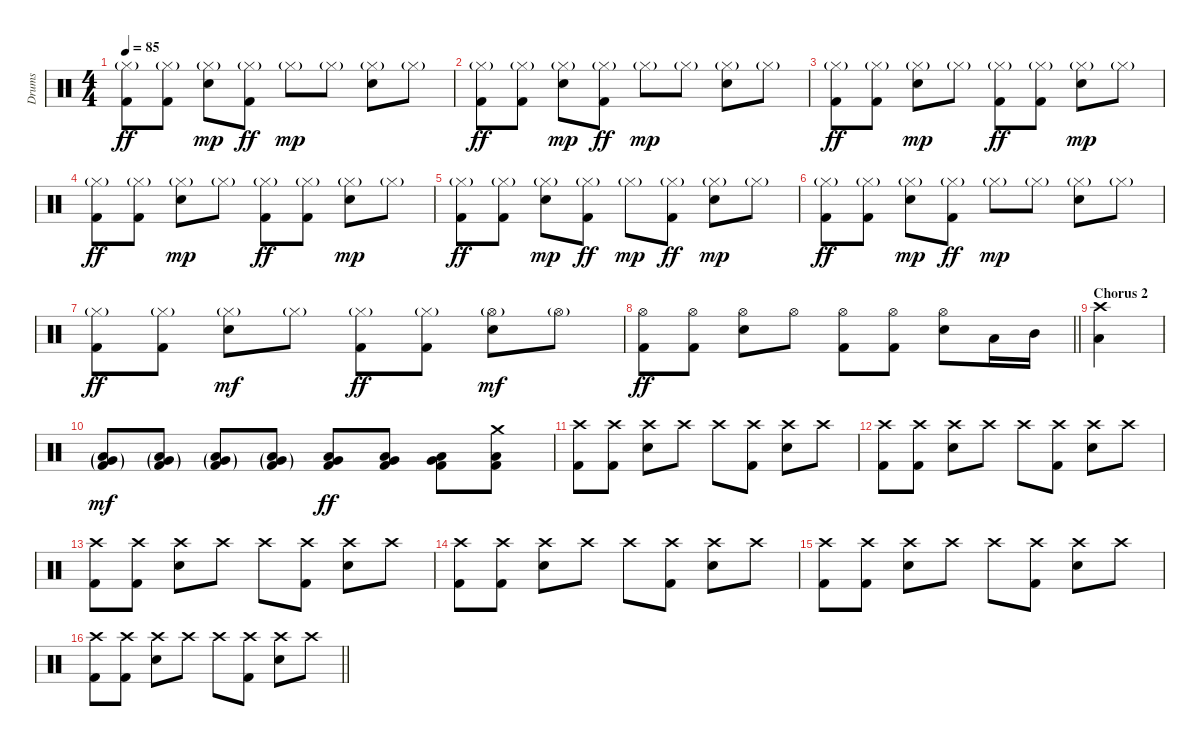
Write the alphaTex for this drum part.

\track ("Drums" "Drums") {instrument percussion}
\staff {score}
\articulation defaults
\ts (4 4)
\tempo 85
\clef neutral
\ks c
("Hi-Hat (closed)"{g} "Kick (hit) 2").8{dy ff} ("Hi-Hat (closed)"{g} "Kick (hit) 2").8 ("Hi-Hat (closed)"{g} "Electric Snare (hit)").8{dy mp} ("Hi-Hat (closed)"{g} "Kick (hit) 2").8{dy ff} "Hi-Hat (closed)"{g}.8{dy mp} "Hi-Hat (closed)"{g}.8 ("Hi-Hat (closed)"{g} "Electric Snare (hit)").8 "Hi-Hat (closed)"{g}.8 |
("Hi-Hat (closed)"{g} "Kick (hit) 2").8{dy ff} ("Hi-Hat (closed)"{g} "Kick (hit) 2").8 ("Hi-Hat (closed)"{g} "Electric Snare (hit)").8{dy mp} ("Hi-Hat (closed)"{g} "Kick (hit) 2").8{dy ff} "Hi-Hat (closed)"{g}.8{dy mp} "Hi-Hat (closed)"{g}.8 ("Hi-Hat (closed)"{g} "Electric Snare (hit)").8 "Hi-Hat (closed)"{g}.8 |
("Hi-Hat (closed)"{g} "Kick (hit) 2").8{dy ff} ("Hi-Hat (closed)"{g} "Kick (hit) 2").8 ("Hi-Hat (closed)"{g} "Electric Snare (hit)").8{dy mp} "Hi-Hat (closed)"{g}.8 ("Hi-Hat (closed)"{g} "Kick (hit) 2").8{dy ff} ("Hi-Hat (closed)"{g} "Kick (hit) 2").8 ("Hi-Hat (closed)"{g} "Electric Snare (hit)").8{dy mp} "Hi-Hat (closed)"{g}.8 |
("Hi-Hat (closed)"{g} "Kick (hit) 2").8{dy ff} ("Hi-Hat (closed)"{g} "Kick (hit) 2").8 ("Hi-Hat (closed)"{g} "Electric Snare (hit)").8{dy mp} "Hi-Hat (closed)"{g}.8 ("Hi-Hat (closed)"{g} "Kick (hit) 2").8{dy ff} ("Hi-Hat (closed)"{g} "Kick (hit) 2").8 ("Hi-Hat (closed)"{g} "Electric Snare (hit)").8{dy mp} "Hi-Hat (closed)"{g}.8 |
("Hi-Hat (closed)"{g} "Kick (hit) 2").8{dy ff} ("Hi-Hat (closed)"{g} "Kick (hit) 2").8 ("Hi-Hat (closed)"{g} "Electric Snare (hit)").8{dy mp} ("Hi-Hat (closed)"{g} "Kick (hit) 2").8{dy ff} "Hi-Hat (closed)"{g}.8{dy mp} ("Hi-Hat (closed)"{g} "Kick (hit) 2").8{dy ff} ("Hi-Hat (closed)"{g} "Electric Snare (hit)").8{dy mp} "Hi-Hat (closed)"{g}.8 |
("Hi-Hat (closed)"{g} "Kick (hit) 2").8{dy ff} ("Hi-Hat (closed)"{g} "Kick (hit) 2").8 ("Hi-Hat (closed)"{g} "Electric Snare (hit)").8{dy mp} ("Hi-Hat (closed)"{g} "Kick (hit) 2").8{dy ff} "Hi-Hat (closed)"{g}.8{dy mp} "Hi-Hat (closed)"{g}.8 ("Hi-Hat (closed)"{g} "Electric Snare (hit)").8 "Hi-Hat (closed)"{g}.8 |
("Hi-Hat (closed)"{g} "Kick (hit) 2").8{dy ff} ("Hi-Hat (closed)"{g} "Kick (hit) 2").8 ("Hi-Hat (closed)"{g} "Electric Snare (hit)").8{dy mf} "Hi-Hat (closed)"{g}.8 ("Hi-Hat (closed)"{g} "Kick (hit) 2").8{dy ff} ("Hi-Hat (closed)"{g} "Kick (hit) 2").8 ("Hi-Hat (open)"{g} "Electric Snare (hit)").8{dy mf} "Hi-Hat (open)"{g}.8 |
\barLineRight lightlight
("Hi-Hat (open)" "Kick (hit) 2").8{dy ff} ("Hi-Hat (open)" "Kick (hit) 2").8 ("Hi-Hat (open)" "Electric Snare (hit)").8 "Hi-Hat (open)".8 ("Hi-Hat (open)" "Kick (hit) 2").8 ("Hi-Hat (open)" "Kick (hit) 2").8 ("Hi-Hat (open)" "Electric Snare (hit)").8 "Low Tom (hit)".16 "Mid Tom (hit)".16 |
\section ("" "Chorus 2")
("Crash high (hit)" "Low Tom (hit)").4 |
("Very Low Tom (hit)"{g} "Low Tom (hit)"{g} "Kick (hit) 2"{g}).8{dy mf} ("Very Low Tom (hit)"{g} "Low Tom (hit)"{g} "Kick (hit) 2"{g}).8 ("Very Low Tom (hit)"{g} "Low Tom (hit)"{g} "Kick (hit) 2"{g}).8 ("Very Low Tom (hit)"{g} "Low Tom (hit)"{g} "Kick (hit) 2"{g}).8 ("Very Low Tom (hit)" "Low Tom (hit)" "Kick (hit) 2").8{dy ff} ("Very Low Tom (hit)" "Low Tom (hit)" "Kick (hit) 2").8 ("Very Low Tom (hit)" "Low Tom (hit)" "Kick (hit) 2").8 ("Crash medium (hit)" "Low Tom (hit)" "Kick (hit) 2").8 |
("Crash high (hit)" "Kick (hit) 2").8 ("Crash high (hit)" "Kick (hit) 2").8 ("Crash high (hit)" "Electric Snare (hit)").8 "Crash high (hit)".8 "Crash high (hit)".8 ("Crash high (hit)" "Kick (hit) 2").8 ("Crash high (hit)" "Electric Snare (hit)").8 "Crash high (hit)".8 |
("Crash high (hit)" "Kick (hit) 2").8 ("Crash high (hit)" "Kick (hit) 2").8 ("Crash high (hit)" "Electric Snare (hit)").8 "Crash high (hit)".8 "Crash high (hit)".8 ("Crash high (hit)" "Kick (hit) 2").8 ("Crash high (hit)" "Electric Snare (hit)").8 "Crash high (hit)".8 |
("Crash high (hit)" "Kick (hit) 2").8 ("Crash high (hit)" "Kick (hit) 2").8 ("Crash high (hit)" "Electric Snare (hit)").8 "Crash high (hit)".8 "Crash high (hit)".8 ("Crash high (hit)" "Kick (hit) 2").8 ("Crash high (hit)" "Electric Snare (hit)").8 "Crash high (hit)".8 |
("Crash high (hit)" "Kick (hit) 2").8 ("Crash high (hit)" "Kick (hit) 2").8 ("Crash high (hit)" "Electric Snare (hit)").8 "Crash high (hit)".8 "Crash high (hit)".8 ("Crash high (hit)" "Kick (hit) 2").8 ("Crash high (hit)" "Electric Snare (hit)").8 "Crash high (hit)".8 |
("Crash high (hit)" "Kick (hit) 2").8 ("Crash high (hit)" "Kick (hit) 2").8 ("Crash high (hit)" "Electric Snare (hit)").8 "Crash high (hit)".8 "Crash high (hit)".8 ("Crash high (hit)" "Kick (hit) 2").8 ("Crash high (hit)" "Electric Snare (hit)").8 "Crash high (hit)".8 |
\barLineRight lightlight
("Crash high (hit)" "Kick (hit) 2").8 ("Crash high (hit)" "Kick (hit) 2").8 ("Crash high (hit)" "Electric Snare (hit)").8 "Crash high (hit)".8 "Crash high (hit)".8 ("Crash high (hit)" "Kick (hit) 2").8 ("Crash high (hit)" "Electric Snare (hit)").8 "Crash high (hit)".8
